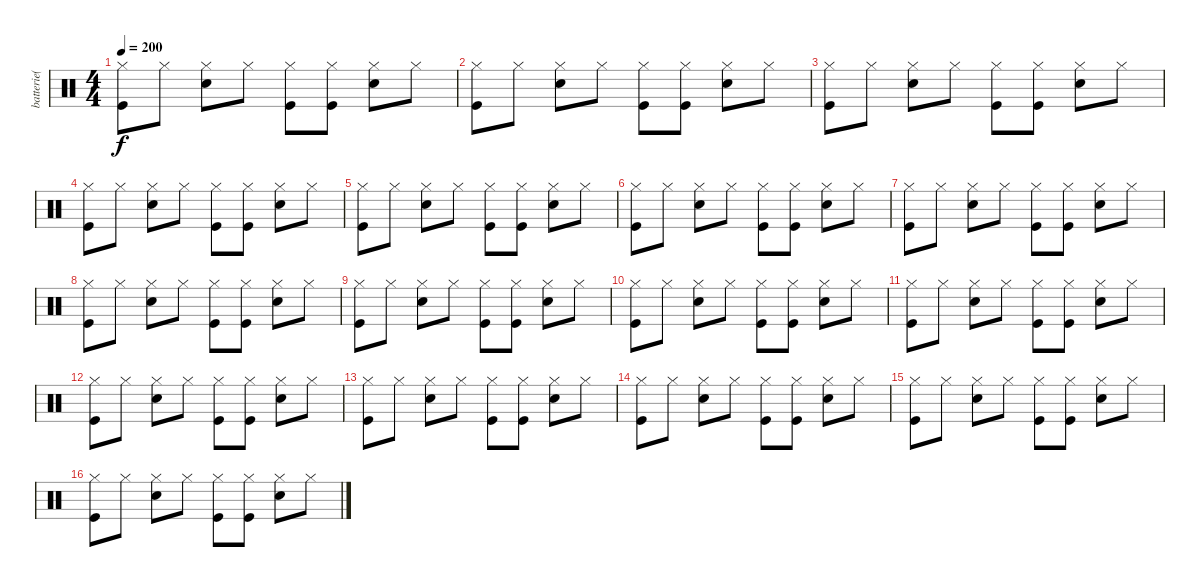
\track ("batterie( Guillaume ) " "batterie( ") {instrument percussion}
\staff {score}
\articulation defaults
\ts (4 4)
\tempo 200
\clef neutral
\ks c
("Hi-Hat (closed)" "Kick (hit)").8{dy f} "Hi-Hat (closed)".8 ("Hi-Hat (closed)" "Snare (hit) 2").8 "Hi-Hat (closed)".8 ("Hi-Hat (closed)" "Kick (hit)").8 ("Hi-Hat (closed)" "Kick (hit)").8 ("Hi-Hat (closed)" "Snare (hit) 2").8 "Hi-Hat (closed)".8 |
("Hi-Hat (closed)" "Kick (hit)").8 "Hi-Hat (closed)".8 ("Hi-Hat (closed)" "Snare (hit) 2").8 "Hi-Hat (closed)".8 ("Hi-Hat (closed)" "Kick (hit)").8 ("Hi-Hat (closed)" "Kick (hit)").8 ("Hi-Hat (closed)" "Snare (hit) 2").8 "Hi-Hat (closed)".8 |
("Hi-Hat (closed)" "Kick (hit)").8 "Hi-Hat (closed)".8 ("Hi-Hat (closed)" "Snare (hit) 2").8 "Hi-Hat (closed)".8 ("Hi-Hat (closed)" "Kick (hit)").8 ("Hi-Hat (closed)" "Kick (hit)").8 ("Hi-Hat (closed)" "Snare (hit) 2").8 "Hi-Hat (closed)".8 |
("Hi-Hat (closed)" "Kick (hit)").8 "Hi-Hat (closed)".8 ("Hi-Hat (closed)" "Snare (hit) 2").8 "Hi-Hat (closed)".8 ("Hi-Hat (closed)" "Kick (hit)").8 ("Hi-Hat (closed)" "Kick (hit)").8 ("Hi-Hat (closed)" "Snare (hit) 2").8 "Hi-Hat (closed)".8 |
("Hi-Hat (closed)" "Kick (hit)").8 "Hi-Hat (closed)".8 ("Hi-Hat (closed)" "Snare (hit) 2").8 "Hi-Hat (closed)".8 ("Hi-Hat (closed)" "Kick (hit)").8 ("Hi-Hat (closed)" "Kick (hit)").8 ("Hi-Hat (closed)" "Snare (hit) 2").8 "Hi-Hat (closed)".8 |
("Hi-Hat (closed)" "Kick (hit)").8 "Hi-Hat (closed)".8 ("Hi-Hat (closed)" "Snare (hit) 2").8 "Hi-Hat (closed)".8 ("Hi-Hat (closed)" "Kick (hit)").8 ("Hi-Hat (closed)" "Kick (hit)").8 ("Hi-Hat (closed)" "Snare (hit) 2").8 "Hi-Hat (closed)".8 |
("Hi-Hat (closed)" "Kick (hit)").8 "Hi-Hat (closed)".8 ("Hi-Hat (closed)" "Snare (hit) 2").8 "Hi-Hat (closed)".8 ("Hi-Hat (closed)" "Kick (hit)").8 ("Hi-Hat (closed)" "Kick (hit)").8 ("Hi-Hat (closed)" "Snare (hit) 2").8 "Hi-Hat (closed)".8 |
("Hi-Hat (closed)" "Kick (hit)").8 "Hi-Hat (closed)".8 ("Hi-Hat (closed)" "Snare (hit) 2").8 "Hi-Hat (closed)".8 ("Hi-Hat (closed)" "Kick (hit)").8 ("Hi-Hat (closed)" "Kick (hit)").8 ("Hi-Hat (closed)" "Snare (hit) 2").8 "Hi-Hat (closed)".8 |
("Hi-Hat (closed)" "Kick (hit)").8 "Hi-Hat (closed)".8 ("Hi-Hat (closed)" "Snare (hit) 2").8 "Hi-Hat (closed)".8 ("Hi-Hat (closed)" "Kick (hit)").8 ("Hi-Hat (closed)" "Kick (hit)").8 ("Hi-Hat (closed)" "Snare (hit) 2").8 "Hi-Hat (closed)".8 |
("Hi-Hat (closed)" "Kick (hit)").8 "Hi-Hat (closed)".8 ("Hi-Hat (closed)" "Snare (hit) 2").8 "Hi-Hat (closed)".8 ("Hi-Hat (closed)" "Kick (hit)").8 ("Hi-Hat (closed)" "Kick (hit)").8 ("Hi-Hat (closed)" "Snare (hit) 2").8 "Hi-Hat (closed)".8 |
("Hi-Hat (closed)" "Kick (hit)").8 "Hi-Hat (closed)".8 ("Hi-Hat (closed)" "Snare (hit) 2").8 "Hi-Hat (closed)".8 ("Hi-Hat (closed)" "Kick (hit)").8 ("Hi-Hat (closed)" "Kick (hit)").8 ("Hi-Hat (closed)" "Snare (hit) 2").8 "Hi-Hat (closed)".8 |
("Hi-Hat (closed)" "Kick (hit)").8 "Hi-Hat (closed)".8 ("Hi-Hat (closed)" "Snare (hit) 2").8 "Hi-Hat (closed)".8 ("Hi-Hat (closed)" "Kick (hit)").8 ("Hi-Hat (closed)" "Kick (hit)").8 ("Hi-Hat (closed)" "Snare (hit) 2").8 "Hi-Hat (closed)".8 |
("Hi-Hat (closed)" "Kick (hit)").8 "Hi-Hat (closed)".8 ("Hi-Hat (closed)" "Snare (hit) 2").8 "Hi-Hat (closed)".8 ("Hi-Hat (closed)" "Kick (hit)").8 ("Hi-Hat (closed)" "Kick (hit)").8 ("Hi-Hat (closed)" "Snare (hit) 2").8 "Hi-Hat (closed)".8 |
("Hi-Hat (closed)" "Kick (hit)").8 "Hi-Hat (closed)".8 ("Hi-Hat (closed)" "Snare (hit) 2").8 "Hi-Hat (closed)".8 ("Hi-Hat (closed)" "Kick (hit)").8 ("Hi-Hat (closed)" "Kick (hit)").8 ("Hi-Hat (closed)" "Snare (hit) 2").8 "Hi-Hat (closed)".8 |
("Hi-Hat (closed)" "Kick (hit)").8 "Hi-Hat (closed)".8 ("Hi-Hat (closed)" "Snare (hit) 2").8 "Hi-Hat (closed)".8 ("Hi-Hat (closed)" "Kick (hit)").8 ("Hi-Hat (closed)" "Kick (hit)").8 ("Hi-Hat (closed)" "Snare (hit) 2").8 "Hi-Hat (closed)".8 |
("Hi-Hat (closed)" "Kick (hit)").8 "Hi-Hat (closed)".8 ("Hi-Hat (closed)" "Snare (hit) 2").8 "Hi-Hat (closed)".8 ("Hi-Hat (closed)" "Kick (hit)").8 ("Hi-Hat (closed)" "Kick (hit)").8 ("Hi-Hat (closed)" "Snare (hit) 2").8 "Hi-Hat (closed)".8
